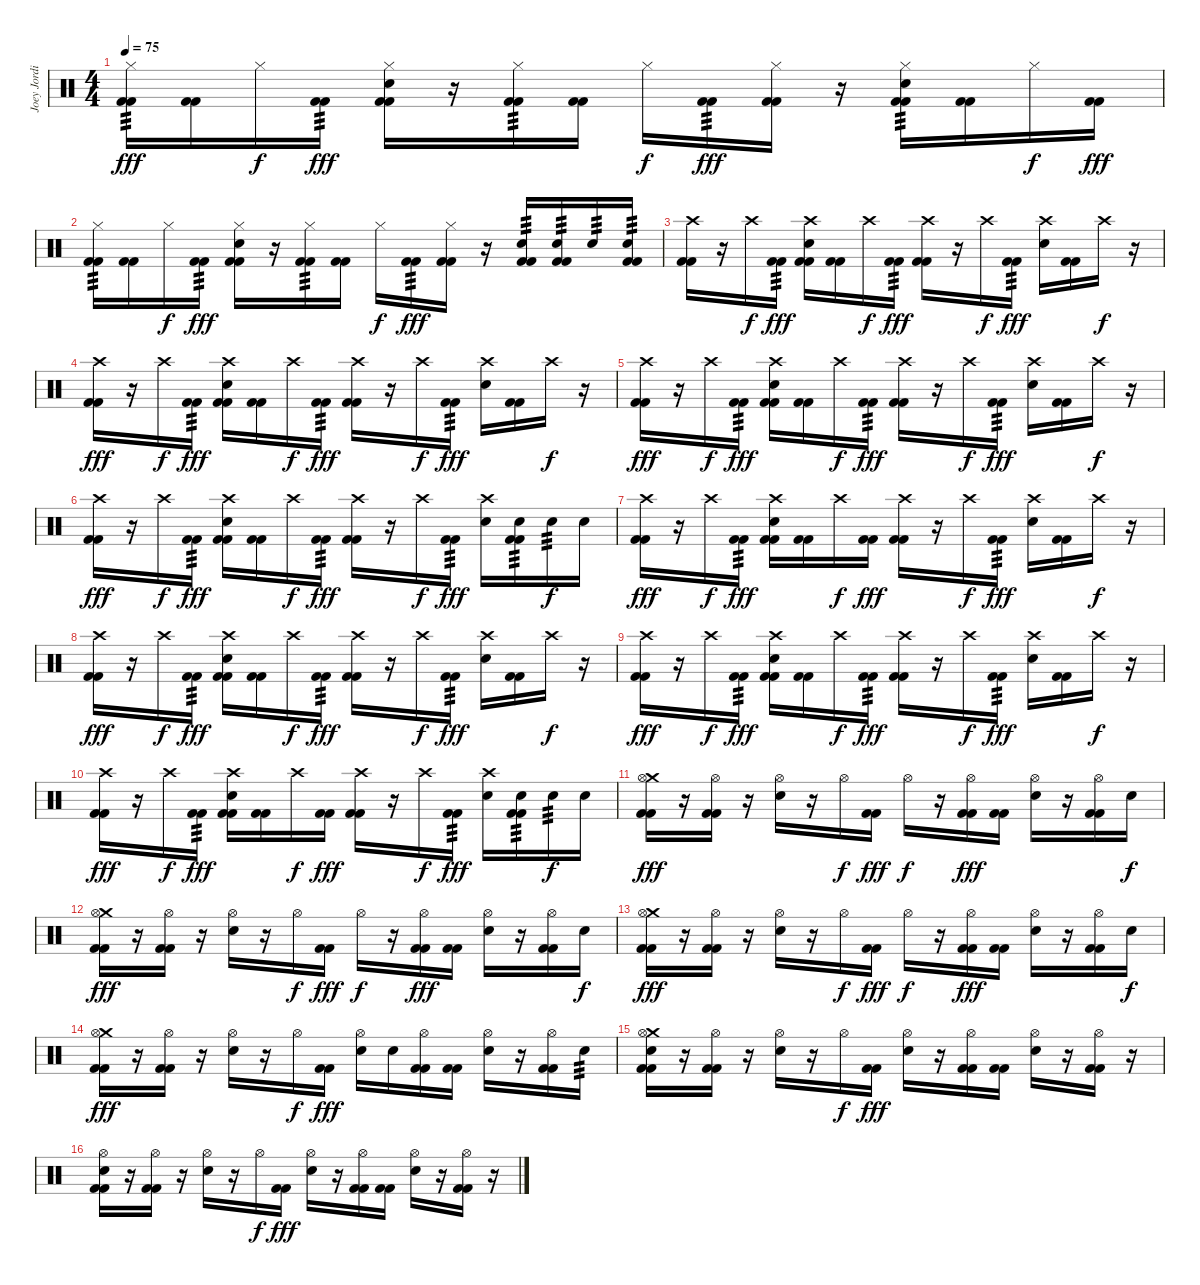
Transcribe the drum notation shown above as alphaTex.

\track ("Joey Jordison" "Joey Jordi") {instrument percussion}
\staff {score}
\articulation defaults
\ts (4 4)
\tempo 75
\clef neutral
\ks c
("Hi-Hat (closed)" "Kick (hit) 2" "Kick (hit) 2").16{tp 3 dy fff} ("Kick (hit) 2" "Kick (hit) 2").16 "Hi-Hat (closed)".16{dy f} ("Kick (hit) 2" "Kick (hit) 2").16{tp 3 dy fff} ("Hi-Hat (closed)" "Electric Snare (hit)" "Kick (hit) 2" "Kick (hit) 2").16 r.16 ("Hi-Hat (closed)" "Kick (hit) 2" "Kick (hit) 2").16{tp 3} ("Kick (hit) 2" "Kick (hit) 2").16 "Hi-Hat (closed)".16{dy f} ("Kick (hit) 2" "Kick (hit) 2").16{tp 3 dy fff} ("Hi-Hat (closed)" "Kick (hit) 2" "Kick (hit) 2").16 r.16 ("Hi-Hat (closed)" "Electric Snare (hit)" "Kick (hit) 2" "Kick (hit) 2").16{tp 3} ("Kick (hit) 2" "Kick (hit) 2").16 "Hi-Hat (closed)".16{dy f} ("Kick (hit) 2" "Kick (hit) 2").16{dy fff} |
("Hi-Hat (closed)" "Kick (hit) 2" "Kick (hit) 2").16{tp 3} ("Kick (hit) 2" "Kick (hit) 2").16 "Hi-Hat (closed)".16{dy f} ("Kick (hit) 2" "Kick (hit) 2").16{tp 3 dy fff} ("Hi-Hat (closed)" "Electric Snare (hit)" "Kick (hit) 2" "Kick (hit) 2").16 r.16 ("Hi-Hat (closed)" "Kick (hit) 2" "Kick (hit) 2").16{tp 3} ("Kick (hit) 2" "Kick (hit) 2").16 "Hi-Hat (closed)".16{dy f} ("Kick (hit) 2" "Kick (hit) 2").16{tp 3 dy fff} ("Hi-Hat (closed)" "Kick (hit) 2" "Kick (hit) 2").16 r.16 ("Electric Snare (hit)" "Kick (hit) 2" "Kick (hit) 2").16{tp 3} ("Electric Snare (hit)" "Kick (hit) 2" "Kick (hit) 2").16{tp 3} "Electric Snare (hit)".16{tp 3} ("Electric Snare (hit)" "Kick (hit) 2" "Kick (hit) 2").16{tp 3} |
("Crash high (hit)" "Kick (hit) 2" "Kick (hit) 2").16 r.16 "Crash high (hit)".16{dy f} ("Kick (hit) 2" "Kick (hit) 2").16{tp 3 dy fff} ("Crash high (hit)" "Electric Snare (hit)" "Kick (hit) 2" "Kick (hit) 2").16 ("Kick (hit) 2" "Kick (hit) 2").16 "Crash high (hit)".16{dy f} ("Kick (hit) 2" "Kick (hit) 2").16{tp 3 dy fff} ("Crash high (hit)" "Kick (hit) 2" "Kick (hit) 2").16 r.16 "Crash high (hit)".16{dy f} ("Kick (hit) 2" "Kick (hit) 2").16{tp 3 dy fff} ("Crash high (hit)" "Electric Snare (hit)").16 ("Kick (hit) 2" "Kick (hit) 2").16 "Crash high (hit)".16{dy f} r.16 |
("Crash high (hit)" "Kick (hit) 2" "Kick (hit) 2").16{dy fff} r.16 "Crash high (hit)".16{dy f} ("Kick (hit) 2" "Kick (hit) 2").16{tp 3 dy fff} ("Crash high (hit)" "Electric Snare (hit)" "Kick (hit) 2" "Kick (hit) 2").16 ("Kick (hit) 2" "Kick (hit) 2").16 "Crash high (hit)".16{dy f} ("Kick (hit) 2" "Kick (hit) 2").16{tp 3 dy fff} ("Crash high (hit)" "Kick (hit) 2" "Kick (hit) 2").16 r.16 "Crash high (hit)".16{dy f} ("Kick (hit) 2" "Kick (hit) 2").16{tp 3 dy fff} ("Crash high (hit)" "Electric Snare (hit)").16 ("Kick (hit) 2" "Kick (hit) 2").16 "Crash high (hit)".16{dy f} r.16 |
("Crash high (hit)" "Kick (hit) 2" "Kick (hit) 2").16{dy fff} r.16 "Crash high (hit)".16{dy f} ("Kick (hit) 2" "Kick (hit) 2").16{tp 3 dy fff} ("Crash high (hit)" "Electric Snare (hit)" "Kick (hit) 2" "Kick (hit) 2").16 ("Kick (hit) 2" "Kick (hit) 2").16 "Crash high (hit)".16{dy f} ("Kick (hit) 2" "Kick (hit) 2").16{tp 3 dy fff} ("Crash high (hit)" "Kick (hit) 2" "Kick (hit) 2").16 r.16 "Crash high (hit)".16{dy f} ("Kick (hit) 2" "Kick (hit) 2").16{tp 3 dy fff} ("Crash high (hit)" "Electric Snare (hit)").16 ("Kick (hit) 2" "Kick (hit) 2").16 "Crash high (hit)".16{dy f} r.16 |
("Crash high (hit)" "Kick (hit) 2" "Kick (hit) 2").16{dy fff} r.16 "Crash high (hit)".16{dy f} ("Kick (hit) 2" "Kick (hit) 2").16{tp 3 dy fff} ("Crash high (hit)" "Electric Snare (hit)" "Kick (hit) 2" "Kick (hit) 2").16 ("Kick (hit) 2" "Kick (hit) 2").16 "Crash high (hit)".16{dy f} ("Kick (hit) 2" "Kick (hit) 2").16{tp 3 dy fff} ("Crash high (hit)" "Kick (hit) 2" "Kick (hit) 2").16 r.16 "Crash high (hit)".16{dy f} ("Kick (hit) 2" "Kick (hit) 2").16{tp 3 dy fff} ("Crash high (hit)" "Electric Snare (hit)").16 ("Electric Snare (hit)" "Kick (hit) 2" "Kick (hit) 2").16{tp 3} "Electric Snare (hit)".16{tp 3 dy f} "Electric Snare (hit)".16 |
("Crash high (hit)" "Kick (hit) 2" "Kick (hit) 2").16{dy fff} r.16 "Crash high (hit)".16{dy f} ("Kick (hit) 2" "Kick (hit) 2").16{tp 3 dy fff} ("Crash high (hit)" "Electric Snare (hit)" "Kick (hit) 2" "Kick (hit) 2").16 ("Kick (hit) 2" "Kick (hit) 2").16 "Crash high (hit)".16{dy f} ("Kick (hit) 2" "Kick (hit) 2").16{dy fff} ("Crash high (hit)" "Kick (hit) 2" "Kick (hit) 2").16 r.16 "Crash high (hit)".16{dy f} ("Kick (hit) 2" "Kick (hit) 2").16{tp 3 dy fff} ("Crash high (hit)" "Electric Snare (hit)").16 ("Kick (hit) 2" "Kick (hit) 2").16 "Crash high (hit)".16{dy f} r.16 |
("Crash high (hit)" "Kick (hit) 2" "Kick (hit) 2").16{dy fff} r.16 "Crash high (hit)".16{dy f} ("Kick (hit) 2" "Kick (hit) 2").16{tp 3 dy fff} ("Crash high (hit)" "Electric Snare (hit)" "Kick (hit) 2" "Kick (hit) 2").16 ("Kick (hit) 2" "Kick (hit) 2").16 "Crash high (hit)".16{dy f} ("Kick (hit) 2" "Kick (hit) 2").16{tp 3 dy fff} ("Crash high (hit)" "Kick (hit) 2" "Kick (hit) 2").16 r.16 "Crash high (hit)".16{dy f} ("Kick (hit) 2" "Kick (hit) 2").16{tp 3 dy fff} ("Crash high (hit)" "Electric Snare (hit)").16 ("Kick (hit) 2" "Kick (hit) 2").16 "Crash high (hit)".16{dy f} r.16 |
("Crash high (hit)" "Kick (hit) 2" "Kick (hit) 2").16{dy fff} r.16 "Crash high (hit)".16{dy f} ("Kick (hit) 2" "Kick (hit) 2").16{tp 3 dy fff} ("Crash high (hit)" "Electric Snare (hit)" "Kick (hit) 2" "Kick (hit) 2").16 ("Kick (hit) 2" "Kick (hit) 2").16 "Crash high (hit)".16{dy f} ("Kick (hit) 2" "Kick (hit) 2").16{tp 3 dy fff} ("Crash high (hit)" "Kick (hit) 2" "Kick (hit) 2").16 r.16 "Crash high (hit)".16{dy f} ("Kick (hit) 2" "Kick (hit) 2").16{tp 3 dy fff} ("Crash high (hit)" "Electric Snare (hit)").16 ("Kick (hit) 2" "Kick (hit) 2").16 "Crash high (hit)".16{dy f} r.16 |
("Crash high (hit)" "Kick (hit) 2" "Kick (hit) 2").16{dy fff} r.16 "Crash high (hit)".16{dy f} ("Kick (hit) 2" "Kick (hit) 2").16{tp 3 dy fff} ("Crash high (hit)" "Electric Snare (hit)" "Kick (hit) 2" "Kick (hit) 2").16 ("Kick (hit) 2" "Kick (hit) 2").16 "Crash high (hit)".16{dy f} ("Kick (hit) 2" "Kick (hit) 2").16{dy fff} ("Crash high (hit)" "Kick (hit) 2" "Kick (hit) 2").16 r.16 "Crash high (hit)".16{dy f} ("Kick (hit) 2" "Kick (hit) 2").16{tp 3 dy fff} ("Crash high (hit)" "Electric Snare (hit)").16 ("Electric Snare (hit)" "Kick (hit) 2" "Kick (hit) 2").16{tp 3} "Electric Snare (hit)".16{tp 3 dy f} "Electric Snare (hit)".16 |
("Crash medium (hit)" "Hi-Hat (open)" "Kick (hit) 2" "Kick (hit) 2").16{dy fff} r.16 ("Hi-Hat (open)" "Kick (hit) 2" "Kick (hit) 2").16 r.16 ("Hi-Hat (open)" "Electric Snare (hit)").16 r.16 "Hi-Hat (open)".16{dy f} ("Kick (hit) 2" "Kick (hit) 2").16{dy fff} "Hi-Hat (open)".16{dy f} r.16 ("Hi-Hat (open)" "Kick (hit) 2" "Kick (hit) 2").16{dy fff} ("Kick (hit) 2" "Kick (hit) 2").16 ("Hi-Hat (open)" "Electric Snare (hit)").16 r.16 ("Hi-Hat (open)" "Kick (hit) 2" "Kick (hit) 2").16 "Electric Snare (hit)".16{dy f} |
("Crash medium (hit)" "Hi-Hat (open)" "Kick (hit) 2" "Kick (hit) 2").16{dy fff} r.16 ("Hi-Hat (open)" "Kick (hit) 2" "Kick (hit) 2").16 r.16 ("Hi-Hat (open)" "Electric Snare (hit)").16 r.16 "Hi-Hat (open)".16{dy f} ("Kick (hit) 2" "Kick (hit) 2").16{dy fff} "Hi-Hat (open)".16{dy f} r.16 ("Hi-Hat (open)" "Kick (hit) 2" "Kick (hit) 2").16{dy fff} ("Kick (hit) 2" "Kick (hit) 2").16 ("Hi-Hat (open)" "Electric Snare (hit)").16 r.16 ("Hi-Hat (open)" "Kick (hit) 2" "Kick (hit) 2").16 "Electric Snare (hit)".16{dy f} |
("Crash medium (hit)" "Hi-Hat (open)" "Kick (hit) 2" "Kick (hit) 2").16{dy fff} r.16 ("Hi-Hat (open)" "Kick (hit) 2" "Kick (hit) 2").16 r.16 ("Hi-Hat (open)" "Electric Snare (hit)").16 r.16 "Hi-Hat (open)".16{dy f} ("Kick (hit) 2" "Kick (hit) 2").16{dy fff} "Hi-Hat (open)".16{dy f} r.16 ("Hi-Hat (open)" "Kick (hit) 2" "Kick (hit) 2").16{dy fff} ("Kick (hit) 2" "Kick (hit) 2").16 ("Hi-Hat (open)" "Electric Snare (hit)").16 r.16 ("Hi-Hat (open)" "Kick (hit) 2" "Kick (hit) 2").16 "Electric Snare (hit)".16{dy f} |
("Crash medium (hit)" "Hi-Hat (open)" "Kick (hit) 2" "Kick (hit) 2").16{dy fff} r.16 ("Hi-Hat (open)" "Kick (hit) 2" "Kick (hit) 2").16 r.16 ("Hi-Hat (open)" "Electric Snare (hit)").16 r.16 "Hi-Hat (open)".16{dy f} ("Kick (hit) 2" "Kick (hit) 2").16{dy fff} ("Hi-Hat (open)" "Electric Snare (hit)").16 "Electric Snare (hit)".16 ("Hi-Hat (open)" "Kick (hit) 2" "Kick (hit) 2").16 ("Kick (hit) 2" "Kick (hit) 2").16 ("Hi-Hat (open)" "Electric Snare (hit)").16 r.16 ("Hi-Hat (open)" "Kick (hit) 2" "Kick (hit) 2").16 "Electric Snare (hit)".16{tp 3} |
("Crash medium (hit)" "Hi-Hat (open)" "Electric Snare (hit)" "Kick (hit) 2" "Kick (hit) 2").16 r.16 ("Hi-Hat (open)" "Kick (hit) 2" "Kick (hit) 2").16 r.16 ("Hi-Hat (open)" "Electric Snare (hit)").16 r.16 "Hi-Hat (open)".16{dy f} ("Kick (hit) 2" "Kick (hit) 2").16{dy fff} ("Hi-Hat (open)" "Electric Snare (hit)").16 r.16 ("Hi-Hat (open)" "Kick (hit) 2" "Kick (hit) 2").16 ("Kick (hit) 2" "Kick (hit) 2").16 ("Hi-Hat (open)" "Electric Snare (hit)").16 r.16 ("Hi-Hat (open)" "Kick (hit) 2" "Kick (hit) 2").16 r.16 |
("Hi-Hat (open)" "Electric Snare (hit)" "Kick (hit) 2" "Kick (hit) 2").16 r.16 ("Hi-Hat (open)" "Kick (hit) 2" "Kick (hit) 2").16 r.16 ("Hi-Hat (open)" "Electric Snare (hit)").16 r.16 "Hi-Hat (open)".16{dy f} ("Kick (hit) 2" "Kick (hit) 2").16{dy fff} ("Hi-Hat (open)" "Electric Snare (hit)").16 r.16 ("Hi-Hat (open)" "Kick (hit) 2" "Kick (hit) 2").16 ("Kick (hit) 2" "Kick (hit) 2").16 ("Hi-Hat (open)" "Electric Snare (hit)").16 r.16 ("Hi-Hat (open)" "Kick (hit) 2" "Kick (hit) 2").16 r.16
